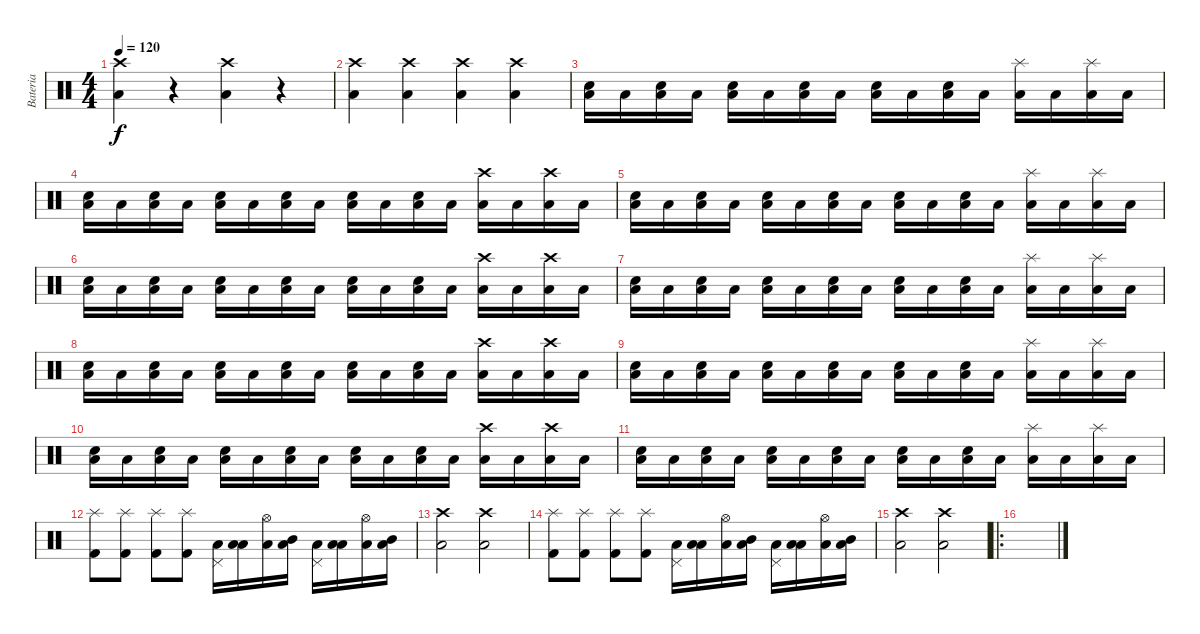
\track ("Bateria" "Bateria") {instrument percussion}
\staff {score}
\articulation defaults
\ts (4 4)
\tempo 120
\clef neutral
\ks c
("Crash high (hit)" "Low Tom (hit)").4{dy f} r.4 ("Crash high (hit)" "Low Tom (hit)").4 r.4 |
("Low Tom (hit)" "Crash high (hit)").4 ("Low Tom (hit)" "Crash high (hit)").4 ("Low Tom (hit)" "Crash high (hit)").4 ("Low Tom (hit)" "Crash high (hit)").4 |
("Low Tom (hit)" "Electric Snare (hit)").16 "Low Tom (hit)".16 ("Low Tom (hit)" "Electric Snare (hit)").16 "Low Tom (hit)".16 ("Low Tom (hit)" "Electric Snare (hit)").16 "Low Tom (hit)".16 ("Low Tom (hit)" "Electric Snare (hit)").16 "Low Tom (hit)".16 ("Low Tom (hit)" "Electric Snare (hit)").16 "Low Tom (hit)".16 ("Low Tom (hit)" "Electric Snare (hit)").16 "Low Tom (hit)".16 ("Low Tom (hit)" "Splash (hit)").16 "Low Tom (hit)".16 ("Low Tom (hit)" "Splash (hit)").16 "Low Tom (hit)".16 |
("Low Tom (hit)" "Electric Snare (hit)").16 "Low Tom (hit)".16 ("Low Tom (hit)" "Electric Snare (hit)").16 "Low Tom (hit)".16 ("Low Tom (hit)" "Electric Snare (hit)").16 "Low Tom (hit)".16 ("Low Tom (hit)" "Electric Snare (hit)").16 "Low Tom (hit)".16 ("Low Tom (hit)" "Electric Snare (hit)").16 "Low Tom (hit)".16 ("Low Tom (hit)" "Electric Snare (hit)").16 "Low Tom (hit)".16 ("Low Tom (hit)" "Crash high (hit)").16 "Low Tom (hit)".16 ("Low Tom (hit)" "Crash high (hit)").16 "Low Tom (hit)".16 |
("Low Tom (hit)" "Electric Snare (hit)").16 "Low Tom (hit)".16 ("Low Tom (hit)" "Electric Snare (hit)").16 "Low Tom (hit)".16 ("Low Tom (hit)" "Electric Snare (hit)").16 "Low Tom (hit)".16 ("Low Tom (hit)" "Electric Snare (hit)").16 "Low Tom (hit)".16 ("Low Tom (hit)" "Electric Snare (hit)").16 "Low Tom (hit)".16 ("Low Tom (hit)" "Electric Snare (hit)").16 "Low Tom (hit)".16 ("Low Tom (hit)" "Splash (hit)").16 "Low Tom (hit)".16 ("Low Tom (hit)" "Splash (hit)").16 "Low Tom (hit)".16 |
("Low Tom (hit)" "Electric Snare (hit)").16 "Low Tom (hit)".16 ("Low Tom (hit)" "Electric Snare (hit)").16 "Low Tom (hit)".16 ("Low Tom (hit)" "Electric Snare (hit)").16 "Low Tom (hit)".16 ("Low Tom (hit)" "Electric Snare (hit)").16 "Low Tom (hit)".16 ("Low Tom (hit)" "Electric Snare (hit)").16 "Low Tom (hit)".16 ("Low Tom (hit)" "Electric Snare (hit)").16 "Low Tom (hit)".16 ("Low Tom (hit)" "Crash high (hit)").16 "Low Tom (hit)".16 ("Low Tom (hit)" "Crash high (hit)").16 "Low Tom (hit)".16 |
("Low Tom (hit)" "Electric Snare (hit)").16 "Low Tom (hit)".16 ("Low Tom (hit)" "Electric Snare (hit)").16 "Low Tom (hit)".16 ("Low Tom (hit)" "Electric Snare (hit)").16 "Low Tom (hit)".16 ("Low Tom (hit)" "Electric Snare (hit)").16 "Low Tom (hit)".16 ("Low Tom (hit)" "Electric Snare (hit)").16 "Low Tom (hit)".16 ("Low Tom (hit)" "Electric Snare (hit)").16 "Low Tom (hit)".16 ("Low Tom (hit)" "Splash (hit)").16 "Low Tom (hit)".16 ("Low Tom (hit)" "Splash (hit)").16 "Low Tom (hit)".16 |
("Low Tom (hit)" "Electric Snare (hit)").16 "Low Tom (hit)".16 ("Low Tom (hit)" "Electric Snare (hit)").16 "Low Tom (hit)".16 ("Low Tom (hit)" "Electric Snare (hit)").16 "Low Tom (hit)".16 ("Low Tom (hit)" "Electric Snare (hit)").16 "Low Tom (hit)".16 ("Low Tom (hit)" "Electric Snare (hit)").16 "Low Tom (hit)".16 ("Low Tom (hit)" "Electric Snare (hit)").16 "Low Tom (hit)".16 ("Low Tom (hit)" "Crash high (hit)").16 "Low Tom (hit)".16 ("Low Tom (hit)" "Crash high (hit)").16 "Low Tom (hit)".16 |
("Low Tom (hit)" "Electric Snare (hit)").16 "Low Tom (hit)".16 ("Low Tom (hit)" "Electric Snare (hit)").16 "Low Tom (hit)".16 ("Low Tom (hit)" "Electric Snare (hit)").16 "Low Tom (hit)".16 ("Low Tom (hit)" "Electric Snare (hit)").16 "Low Tom (hit)".16 ("Low Tom (hit)" "Electric Snare (hit)").16 "Low Tom (hit)".16 ("Low Tom (hit)" "Electric Snare (hit)").16 "Low Tom (hit)".16 ("Low Tom (hit)" "Splash (hit)").16 "Low Tom (hit)".16 ("Low Tom (hit)" "Splash (hit)").16 "Low Tom (hit)".16 |
("Low Tom (hit)" "Electric Snare (hit)").16 "Low Tom (hit)".16 ("Low Tom (hit)" "Electric Snare (hit)").16 "Low Tom (hit)".16 ("Low Tom (hit)" "Electric Snare (hit)").16 "Low Tom (hit)".16 ("Low Tom (hit)" "Electric Snare (hit)").16 "Low Tom (hit)".16 ("Low Tom (hit)" "Electric Snare (hit)").16 "Low Tom (hit)".16 ("Low Tom (hit)" "Electric Snare (hit)").16 "Low Tom (hit)".16 ("Low Tom (hit)" "Crash high (hit)").16 "Low Tom (hit)".16 ("Low Tom (hit)" "Crash high (hit)").16 "Low Tom (hit)".16 |
("Low Tom (hit)" "Electric Snare (hit)").16 "Low Tom (hit)".16 ("Low Tom (hit)" "Electric Snare (hit)").16 "Low Tom (hit)".16 ("Low Tom (hit)" "Electric Snare (hit)").16 "Low Tom (hit)".16 ("Low Tom (hit)" "Electric Snare (hit)").16 "Low Tom (hit)".16 ("Low Tom (hit)" "Electric Snare (hit)").16 "Low Tom (hit)".16 ("Low Tom (hit)" "Electric Snare (hit)").16 "Low Tom (hit)".16 ("Low Tom (hit)" "Splash (hit)").16 "Low Tom (hit)".16 ("Low Tom (hit)" "Splash (hit)").16 "Low Tom (hit)".16 |
("Kick (hit) 2" "Splash (hit)").8 ("Kick (hit) 2" "Splash (hit)").8 ("Kick (hit) 2" "Splash (hit)").8 ("Kick (hit) 2" "Splash (hit)").8 ("Low Tom (hit)" "Pedal Hi-Hat (hit)").16 ("Low Tom (hit)" "Low Tom (hit)").16 ("Low Tom (hit)" "Hi-Hat (open)").16 ("Low Tom (hit)" "Mid Tom (hit)").16 ("Low Tom (hit)" "Pedal Hi-Hat (hit)").16 ("Low Tom (hit)" "Low Tom (hit)").16 ("Low Tom (hit)" "Hi-Hat (open)").16 ("Low Tom (hit)" "Mid Tom (hit)").16 |
("Crash high (hit)" "Low Tom (hit)").2 ("Crash high (hit)" "Low Tom (hit)").2 |
("Kick (hit) 2" "Splash (hit)").8 ("Kick (hit) 2" "Splash (hit)").8 ("Kick (hit) 2" "Splash (hit)").8 ("Kick (hit) 2" "Splash (hit)").8 ("Low Tom (hit)" "Pedal Hi-Hat (hit)").16 ("Low Tom (hit)" "Low Tom (hit)").16 ("Low Tom (hit)" "Hi-Hat (open)").16 ("Low Tom (hit)" "Mid Tom (hit)").16 ("Low Tom (hit)" "Pedal Hi-Hat (hit)").16 ("Low Tom (hit)" "Low Tom (hit)").16 ("Low Tom (hit)" "Hi-Hat (open)").16 ("Low Tom (hit)" "Mid Tom (hit)").16 |
("Crash high (hit)" "Low Tom (hit)").2 ("Crash high (hit)" "Low Tom (hit)").2 |
\ro
